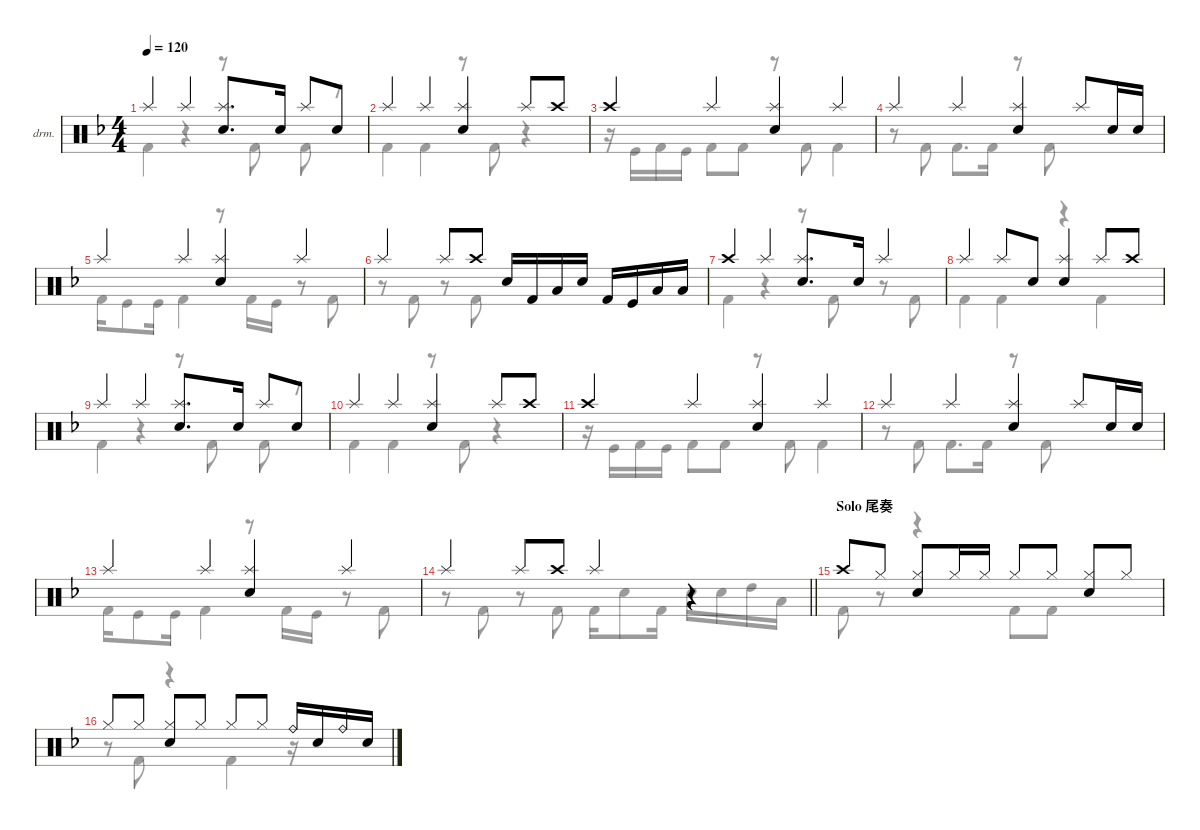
\defaultSystemsLayout 4
\hideDynamics
\bracketExtendMode nobrackets
\firstSystemTrackNameOrientation horizontal
\track ("Drumkit" "drm.") {defaultSystemsLayout 4 instrument percussion}
\staff {score}
\articulation defaults
\voice
\ts (4 4)
\tempo 120
\clef neutral
\ks dminor "Splash (hit)"{acc forcenatural}.4{dy mf beam Up} "Splash (hit)"{acc forcenatural}.4{beam Up}
("Snare (hit) 2"{acc forcenatural} "Splash (hit)"{acc forcenatural}).8{d beam Up} "Snare (hit) 2"{acc forcenatural}.16{beam Up} "Splash (hit)"{acc forcenatural}.8{beam Up} "Snare (hit) 2"{acc forcenatural}.8{beam Up} |
"Splash (hit)"{acc forcenatural}.4{beam Up} "Splash (hit)"{acc forcenatural}.4{beam Up} ("Snare (hit) 2"{acc forcenatural} "Splash (hit)"{acc forcenatural}).4{beam Up} "Splash (hit)"{acc forcenatural}.8{beam Up} "Crash high (hit)"{acc forcenatural}.8{beam Up} |
"Crash high (hit)"{acc forcenatural}.4{beam Up} "Splash (hit)"{acc forcenatural}.4{beam Up} ("Snare (hit) 2"{acc forcenatural} "Splash (hit)"{acc forcenatural}).4{beam Up} "Splash (hit)"{acc forcenatural}.4{beam Up} |
"Splash (hit)"{acc forcenatural}.4{beam Up} "Splash (hit)"{acc forcenatural}.4{beam Up} ("Snare (hit) 2"{acc forcenatural} "Splash (hit)"{acc forcenatural}).4{beam Up} "Splash (hit)"{acc forcenatural}.8{beam Up} "Snare (hit) 2"{acc forcenatural}.16{beam Up} "Snare (hit) 2"{acc forcenatural}.16{beam Up} |
"Splash (hit)"{acc forcenatural}.4{beam Up} "Splash (hit)"{acc forcenatural}.4{beam Up} ("Snare (hit) 2"{acc forcenatural} "Splash (hit)"{acc forcenatural}).4{beam Up} "Splash (hit)"{acc forcenatural}.4{beam Up} |
"Splash (hit)"{acc forcenatural}.4{beam Up} "Splash (hit)"{acc forcenatural}.8{beam Up} "Crash high (hit)"{acc forcenatural}.8{beam Up} "Snare (hit) 2"{acc forcenatural}.16{beam Up} "Kick (hit) 2"{acc forcenatural}.16{beam Up} "Low Tom (hit)"{acc forcenatural}.16{beam Up} "Snare (hit) 2"{acc forcenatural}.16{beam Up} "Kick (hit) 2"{acc forcenatural}.16{beam Up} "Kick (hit)"{acc forcenatural}.16{beam Up} "Low Tom (hit)"{acc forcenatural}.16{beam Up} "Low Tom (hit)"{acc forcenatural}.16{beam Up} |
"Crash high (hit)"{acc forcenatural}.4{beam Up} "Splash (hit)"{acc forcenatural}.4{beam Up} ("Snare (hit) 2"{acc forcenatural} "Splash (hit)"{acc forcenatural}).8{d beam Up} "Snare (hit) 2"{acc forcenatural}.16{beam Up} "Splash (hit)"{acc forcenatural}.4{beam Up} |
"Splash (hit)"{acc forcenatural}.4{beam Up} "Splash (hit)"{acc forcenatural}.8{beam Up} "Snare (hit) 2"{acc forcenatural}.8{beam Up} ("Snare (hit) 2"{acc forcenatural} "Splash (hit)"{acc forcenatural}).4{beam Up} "Splash (hit)"{acc forcenatural}.8{beam Up} "Crash high (hit)"{acc forcenatural}.8{beam Up} |
"Splash (hit)"{acc forcenatural}.4{beam Up} "Splash (hit)"{acc forcenatural}.4{beam Up} ("Snare (hit) 2"{acc forcenatural} "Splash (hit)"{acc forcenatural}).8{d beam Up} "Snare (hit) 2"{acc forcenatural}.16{beam Up} "Splash (hit)"{acc forcenatural}.8{beam Up} "Snare (hit) 2"{acc forcenatural}.8{beam Up} |
"Splash (hit)"{acc forcenatural}.4{beam Up} "Splash (hit)"{acc forcenatural}.4{beam Up} ("Snare (hit) 2"{acc forcenatural} "Splash (hit)"{acc forcenatural}).4{beam Up} "Splash (hit)"{acc forcenatural}.8{beam Up} "Crash high (hit)"{acc forcenatural}.8{beam Up} |
"Crash high (hit)"{acc forcenatural}.4{beam Up} "Splash (hit)"{acc forcenatural}.4{beam Up} ("Snare (hit) 2"{acc forcenatural} "Splash (hit)"{acc forcenatural}).4{beam Up} "Splash (hit)"{acc forcenatural}.4{beam Up} |
"Splash (hit)"{acc forcenatural}.4{beam Up} "Splash (hit)"{acc forcenatural}.4{beam Up} ("Snare (hit) 2"{acc forcenatural} "Splash (hit)"{acc forcenatural}).4{beam Up} "Splash (hit)"{acc forcenatural}.8{beam Up} "Snare (hit) 2"{acc forcenatural}.16{beam Up} "Snare (hit) 2"{acc forcenatural}.16{beam Up} |
"Splash (hit)"{acc forcenatural}.4{beam Up} "Splash (hit)"{acc forcenatural}.4{beam Up} ("Snare (hit) 2"{acc forcenatural} "Splash (hit)"{acc forcenatural}).4{beam Up} "Splash (hit)"{acc forcenatural}.4{beam Up} |
\barLineRight lightlight "Splash (hit)"{acc forcenatural}.4{beam Up} "Splash (hit)"{acc forcenatural}.8{beam Up} "Crash high (hit)"{acc forcenatural}.8{beam Up} "Splash (hit)"{acc forcenatural}.4{beam Up}
r.4{beam Up} |
\section ("" "Solo 尾奏")
"Crash high (hit)"{acc forcenatural}.8{beam Up} "Hi-Hat (closed)"{acc forcenatural}.8{beam Up} ("Hi-Hat (closed)"{acc forcenatural} "Snare (hit) 2"{acc forcenatural}).8{beam Up} "Hi-Hat (closed)"{acc forcenatural}.16{beam Up} "Hi-Hat (closed)"{acc forcenatural}.16{beam Up} "Hi-Hat (closed)"{acc forcenatural}.8{beam Up} "Hi-Hat (closed)"{acc forcenatural}.8{beam Up} ("Hi-Hat (closed)"{acc forcenatural} "Snare (hit) 2"{acc forcenatural}).8{beam Up} "Hi-Hat (closed)"{acc forcenatural}.8{beam Up} |
"Hi-Hat (closed)"{acc forcenatural}.8{beam Up} "Hi-Hat (closed)"{acc forcenatural}.8{beam Up} ("Hi-Hat (closed)"{acc forcenatural} "Snare (hit) 2"{acc forcenatural}).8{beam Up} "Hi-Hat (closed)"{acc forcenatural}.8{beam Up} "Hi-Hat (closed)"{acc forcenatural}.8{beam Up} "Hi-Hat (closed)"{acc forcenatural}.8{beam Up} "Ride (bell)"{acc forcenatural}.16{beam Up} "Snare (hit) 2"{acc forcenatural}.16{beam Up} "Ride (bell)"{acc forcenatural}.16{beam Up} "Snare (hit) 2"{acc forcenatural}.16{beam Up}
\voice
\clef neutral
\ottava regular
\simile none
\ks dminor "Kick (hit) 2"{acc forcenatural}.4{dy mf beam Down}
r.4{beam Down} r.8{beam Down} "Kick (hit) 2"{acc forcenatural}.8{beam Down} "Kick (hit) 2"{acc forcenatural}.8{beam Down} r.8{beam Down} |
"Kick (hit) 2"{acc forcenatural}.4{beam Down} "Kick (hit) 2"{acc forcenatural}.4{beam Down} r.8{beam Down} "Kick (hit) 2"{acc forcenatural}.8{beam Down} r.4{beam Down} |
r.16{beam Down} "Kick (hit)"{acc forcenatural}.16{beam Down} "Kick (hit) 2"{acc forcenatural}.16{beam Down} "Kick (hit)"{acc forcenatural}.16{beam Down} "Kick (hit) 2"{acc forcenatural}.8{beam Down} "Kick (hit) 2"{acc forcenatural}.8{beam Down} r.8{beam Down} "Kick (hit) 2"{acc forcenatural}.8{beam Down} "Kick (hit) 2"{acc forcenatural}.4{beam Down} |
r.8{beam Down} "Kick (hit) 2"{acc forcenatural}.8{beam Down} "Kick (hit) 2"{acc forcenatural}.8{d beam Down} "Kick (hit) 2"{acc forcenatural}.16{beam Down} r.8{beam Down} "Kick (hit) 2"{acc forcenatural}.8{beam Down} |
"Kick (hit) 2"{acc forcenatural}.16{beam Down} "Kick (hit)"{acc forcenatural}.8{beam Down} "Kick (hit)"{acc forcenatural}.16{beam Down} "Kick (hit) 2"{acc forcenatural}.4{beam Down} r.8{beam Down} "Kick (hit) 2"{acc forcenatural}.16{beam Down} "Kick (hit)"{acc forcenatural}.16{beam Down} r.8{beam Down} "Kick (hit) 2"{acc forcenatural}.8{beam Down} |
r.8{beam Down} "Kick (hit) 2"{acc forcenatural}.8{beam Down} r.8{beam Down} "Kick (hit) 2"{acc forcenatural}.8{beam Down} |
"Kick (hit) 2"{acc forcenatural}.4{beam Down} r.4{beam Down} r.8{beam Down} "Kick (hit) 2"{acc forcenatural}.8{beam Down} r.8{beam Down} "Kick (hit) 2"{acc forcenatural}.8{beam Down} |
"Kick (hit) 2"{acc forcenatural}.4{beam Down} "Kick (hit) 2"{acc forcenatural}.4{beam Down} r.4{beam Down} "Kick (hit) 2"{acc forcenatural}.4{beam Down} |
"Kick (hit) 2"{acc forcenatural}.4{beam Down} r.4{beam Down} r.8{beam Down} "Kick (hit) 2"{acc forcenatural}.8{beam Down} "Kick (hit) 2"{acc forcenatural}.8{beam Down} r.8{beam Down} |
"Kick (hit) 2"{acc forcenatural}.4{beam Down} "Kick (hit) 2"{acc forcenatural}.4{beam Down} r.8{beam Down} "Kick (hit) 2"{acc forcenatural}.8{beam Down} r.4{beam Down} |
r.16{beam Down} "Kick (hit)"{acc forcenatural}.16{beam Down} "Kick (hit) 2"{acc forcenatural}.16{beam Down} "Kick (hit)"{acc forcenatural}.16{beam Down} "Kick (hit) 2"{acc forcenatural}.8{beam Down} "Kick (hit) 2"{acc forcenatural}.8{beam Down} r.8{beam Down} "Kick (hit) 2"{acc forcenatural}.8{beam Down} "Kick (hit) 2"{acc forcenatural}.4{beam Down} |
r.8{beam Down} "Kick (hit) 2"{acc forcenatural}.8{beam Down} "Kick (hit) 2"{acc forcenatural}.8{d beam Down} "Kick (hit) 2"{acc forcenatural}.16{beam Down} r.8{beam Down} "Kick (hit) 2"{acc forcenatural}.8{beam Down} |
"Kick (hit) 2"{acc forcenatural}.16{beam Down} "Kick (hit)"{acc forcenatural}.8{beam Down} "Kick (hit)"{acc forcenatural}.16{beam Down} "Kick (hit) 2"{acc forcenatural}.4{beam Down} r.8{beam Down} "Kick (hit) 2"{acc forcenatural}.16{beam Down} "Kick (hit)"{acc forcenatural}.16{beam Down} r.8{beam Down} "Kick (hit) 2"{acc forcenatural}.8{beam Down} |
\barLineRight lightlight
r.8{beam Down} "Kick (hit) 2"{acc forcenatural}.8{beam Down} r.8{beam Down} "Kick (hit) 2"{acc forcenatural}.8{beam Down} "Kick (hit) 2"{acc forcenatural}.16{beam Down} "Snare (hit) 2"{acc forcenatural}.8{beam Down} "Kick (hit) 2"{acc forcenatural}.16{beam Down} "Snare (hit) 2"{acc forcenatural}.16{beam Down} "Snare (hit) 2"{acc forcenatural}.16{beam Down} "High Tom (hit)"{acc forcenatural}.16{beam Down} "Low Tom (hit)"{acc forcenatural}.16{beam Down} |
"Kick (hit) 2"{acc forcenatural}.8{beam Down} r.8{beam Down} r.4{beam Down} "Kick (hit) 2"{acc forcenatural}.8{beam Down} "Kick (hit) 2"{acc forcenatural}.8{beam Down} |
r.8{beam Down} "Kick (hit) 2"{acc forcenatural}.8{beam Down} r.4{beam Down} "Kick (hit) 2"{acc forcenatural}.4{beam Down} r.16{beam Down}
